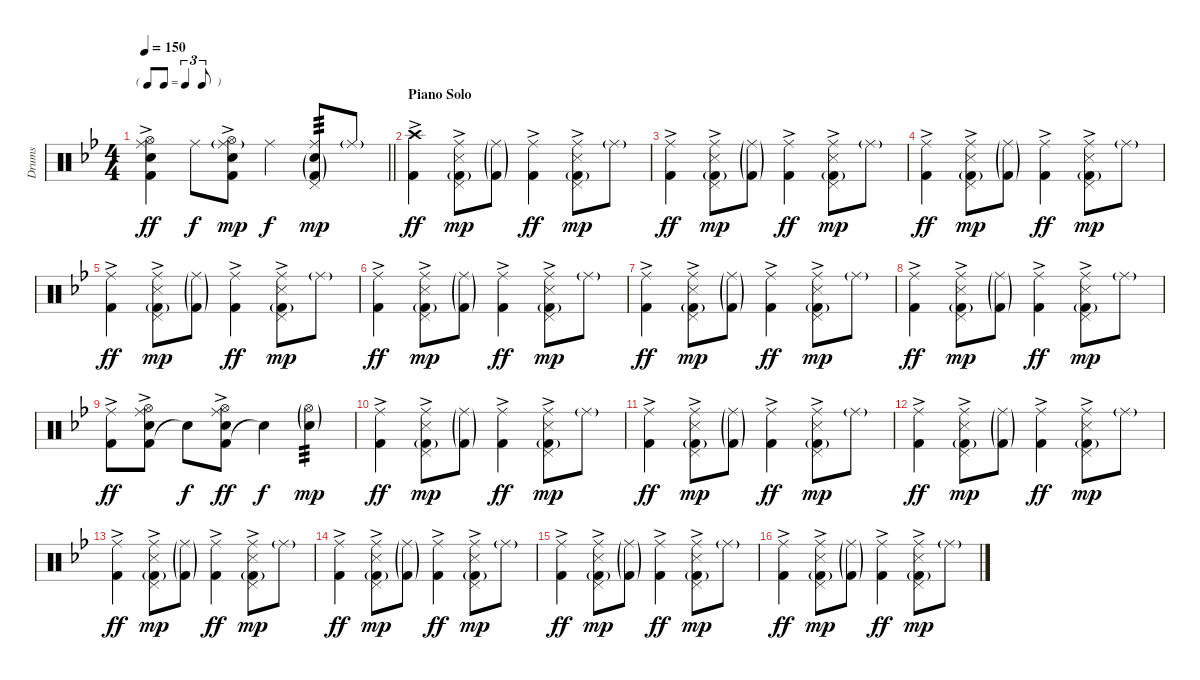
\track ("Drums" "Drums") {instrument percussion}
\staff {score}
\articulation defaults
\ts (4 4)
\tf triplet8th
\tempo 150
\clef neutral
\barLineRight lightlight
\ks bb
("Kick (hit) 2"{ac} "Snare (hit) 2"{ac} "Hi-Hat (open)" "Ride (middle)").4{dy ff} "Ride (middle)".8{dy f} ("Kick (hit) 2"{ac} "Snare (hit) 2"{ac} "Hi-Hat (open)" "Ride (middle)"{g}).8{dy mp} "Ride (middle)".4{dy f} ("Snare (hit) 2"{g} "Kick (hit) 2"{g} "Pedal Hi-Hat (hit)" "Ride (middle)").8{tp 3 dy mp} "Ride (middle)"{g}.8 |
\section ("" "Piano Solo")
("Kick (hit) 2"{ac} "Crash high (hit)").4{dy ff} ("Snare (side stick) 3"{ac} "Kick (hit) 2"{g} "Pedal Hi-Hat (hit)" "Ride (middle)").8{dy mp} ("Kick (hit) 2"{g} "Ride (middle)"{g}).8 ("Kick (hit) 2"{ac} "Ride (middle)").4{dy ff} ("Snare (side stick) 3"{ac} "Kick (hit) 2"{g} "Pedal Hi-Hat (hit)" "Ride (middle)").8{dy mp} "Ride (middle)"{g}.8 |
("Kick (hit) 2"{ac} "Ride (middle)").4{dy ff} ("Snare (side stick) 3"{ac} "Kick (hit) 2"{g} "Pedal Hi-Hat (hit)" "Ride (middle)").8{dy mp} ("Kick (hit) 2"{g} "Ride (middle)"{g}).8 ("Kick (hit) 2"{ac} "Ride (middle)").4{dy ff} ("Snare (side stick) 3"{ac} "Kick (hit) 2"{g} "Pedal Hi-Hat (hit)" "Ride (middle)").8{dy mp} "Ride (middle)"{g}.8 |
("Kick (hit) 2"{ac} "Ride (middle)").4{dy ff} ("Snare (side stick) 3"{ac} "Kick (hit) 2"{g} "Pedal Hi-Hat (hit)" "Ride (middle)").8{dy mp} ("Kick (hit) 2"{g} "Ride (middle)"{g}).8 ("Kick (hit) 2"{ac} "Ride (middle)").4{dy ff} ("Snare (side stick) 3"{ac} "Kick (hit) 2"{g} "Pedal Hi-Hat (hit)" "Ride (middle)").8{dy mp} "Ride (middle)"{g}.8 |
("Kick (hit) 2"{ac} "Ride (middle)").4{dy ff} ("Snare (side stick) 3"{ac} "Kick (hit) 2"{g} "Pedal Hi-Hat (hit)" "Ride (middle)").8{dy mp} ("Kick (hit) 2"{g} "Ride (middle)"{g}).8 ("Kick (hit) 2"{ac} "Ride (middle)").4{dy ff} ("Snare (side stick) 3"{ac} "Kick (hit) 2"{g} "Pedal Hi-Hat (hit)" "Ride (middle)").8{dy mp} "Ride (middle)"{g}.8 |
("Kick (hit) 2"{ac} "Ride (middle)").4{dy ff} ("Snare (side stick) 3"{ac} "Kick (hit) 2"{g} "Pedal Hi-Hat (hit)" "Ride (middle)").8{dy mp} ("Kick (hit) 2"{g} "Ride (middle)"{g}).8 ("Kick (hit) 2"{ac} "Ride (middle)").4{dy ff} ("Snare (side stick) 3"{ac} "Kick (hit) 2"{g} "Pedal Hi-Hat (hit)" "Ride (middle)").8{dy mp} "Ride (middle)"{g}.8 |
("Kick (hit) 2"{ac} "Ride (middle)").4{dy ff} ("Snare (side stick) 3"{ac} "Kick (hit) 2"{g} "Pedal Hi-Hat (hit)" "Ride (middle)").8{dy mp} ("Kick (hit) 2"{g} "Ride (middle)"{g}).8 ("Kick (hit) 2"{ac} "Ride (middle)").4{dy ff} ("Snare (side stick) 3"{ac} "Kick (hit) 2"{g} "Pedal Hi-Hat (hit)" "Ride (middle)").8{dy mp} "Ride (middle)"{g}.8 |
("Kick (hit) 2"{ac} "Ride (middle)").4{dy ff} ("Snare (side stick) 3"{ac} "Kick (hit) 2"{g} "Pedal Hi-Hat (hit)" "Ride (middle)").8{dy mp} ("Kick (hit) 2"{g} "Ride (middle)"{g}).8 ("Kick (hit) 2"{ac} "Ride (middle)").4{dy ff} ("Snare (side stick) 3"{ac} "Kick (hit) 2"{g} "Pedal Hi-Hat (hit)" "Ride (middle)").8{dy mp} "Ride (middle)"{g}.8 |
("Kick (hit) 2"{ac} "Ride (middle)").8{dy ff} ("Kick (hit) 2" "Snare (hit) 2" "Hi-Hat (open)" "Ride (middle)"{ac}).8 "Snare (hit)"{t}.8{dy f} ("Kick (hit) 2" "Snare (hit) 2" "Hi-Hat (open)" "Ride (middle)"{ac}).8{dy ff} "Snare (hit)"{t}.4{dy f} ("Snare (hit) 2"{g} "Hi-Hat (open)"{g}).4{tp 3 dy mp} |
("Kick (hit) 2"{ac} "Ride (middle)").4{dy ff} ("Snare (side stick) 3"{ac} "Kick (hit) 2"{g} "Pedal Hi-Hat (hit)" "Ride (middle)").8{dy mp} ("Kick (hit) 2"{g} "Ride (middle)"{g}).8 ("Kick (hit) 2"{ac} "Ride (middle)").4{dy ff} ("Snare (side stick) 3"{ac} "Kick (hit) 2"{g} "Pedal Hi-Hat (hit)" "Ride (middle)").8{dy mp} "Ride (middle)"{g}.8 |
("Kick (hit) 2"{ac} "Ride (middle)").4{dy ff} ("Snare (side stick) 3"{ac} "Kick (hit) 2"{g} "Pedal Hi-Hat (hit)" "Ride (middle)").8{dy mp} ("Kick (hit) 2"{g} "Ride (middle)"{g}).8 ("Kick (hit) 2"{ac} "Ride (middle)").4{dy ff} ("Snare (side stick) 3"{ac} "Kick (hit) 2"{g} "Pedal Hi-Hat (hit)" "Ride (middle)").8{dy mp} "Ride (middle)"{g}.8 |
("Kick (hit) 2"{ac} "Ride (middle)").4{dy ff} ("Snare (side stick) 3"{ac} "Kick (hit) 2"{g} "Pedal Hi-Hat (hit)" "Ride (middle)").8{dy mp} ("Kick (hit) 2"{g} "Ride (middle)"{g}).8 ("Kick (hit) 2"{ac} "Ride (middle)").4{dy ff} ("Snare (side stick) 3"{ac} "Kick (hit) 2"{g} "Pedal Hi-Hat (hit)" "Ride (middle)").8{dy mp} "Ride (middle)"{g}.8 |
("Kick (hit) 2"{ac} "Ride (middle)").4{dy ff} ("Snare (side stick) 3"{ac} "Kick (hit) 2"{g} "Pedal Hi-Hat (hit)" "Ride (middle)").8{dy mp} ("Kick (hit) 2"{g} "Ride (middle)"{g}).8 ("Kick (hit) 2"{ac} "Ride (middle)").4{dy ff} ("Snare (side stick) 3"{ac} "Kick (hit) 2"{g} "Pedal Hi-Hat (hit)" "Ride (middle)").8{dy mp} "Ride (middle)"{g}.8 |
("Kick (hit) 2"{ac} "Ride (middle)").4{dy ff} ("Snare (side stick) 3"{ac} "Kick (hit) 2"{g} "Pedal Hi-Hat (hit)" "Ride (middle)").8{dy mp} ("Kick (hit) 2"{g} "Ride (middle)"{g}).8 ("Kick (hit) 2"{ac} "Ride (middle)").4{dy ff} ("Snare (side stick) 3"{ac} "Kick (hit) 2"{g} "Pedal Hi-Hat (hit)" "Ride (middle)").8{dy mp} "Ride (middle)"{g}.8 |
("Kick (hit) 2"{ac} "Ride (middle)").4{dy ff} ("Snare (side stick) 3"{ac} "Kick (hit) 2"{g} "Pedal Hi-Hat (hit)" "Ride (middle)").8{dy mp} ("Kick (hit) 2"{g} "Ride (middle)"{g}).8 ("Kick (hit) 2"{ac} "Ride (middle)").4{dy ff} ("Snare (side stick) 3"{ac} "Kick (hit) 2"{g} "Pedal Hi-Hat (hit)" "Ride (middle)").8{dy mp} "Ride (middle)"{g}.8 |
("Kick (hit) 2"{ac} "Ride (middle)").4{dy ff} ("Snare (side stick) 3"{ac} "Kick (hit) 2"{g} "Pedal Hi-Hat (hit)" "Ride (middle)").8{dy mp} ("Kick (hit) 2"{g} "Ride (middle)"{g}).8 ("Kick (hit) 2"{ac} "Ride (middle)").4{dy ff} ("Snare (side stick) 3"{ac} "Kick (hit) 2"{g} "Pedal Hi-Hat (hit)" "Ride (middle)").8{dy mp} "Ride (middle)"{g}.8
